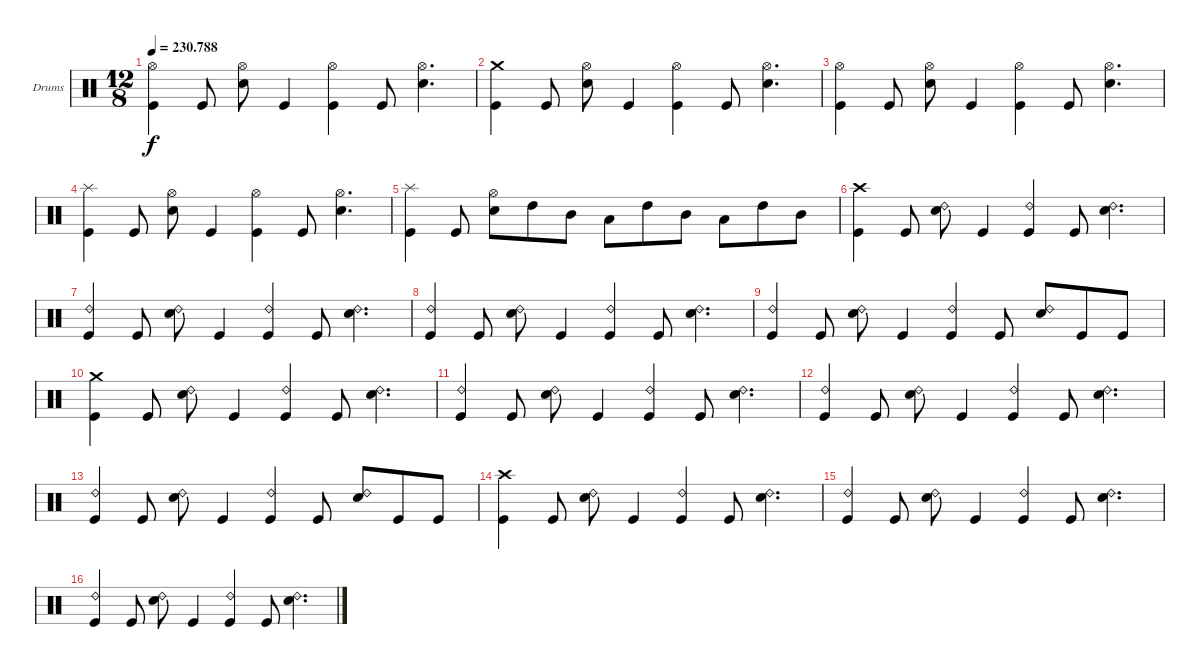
\bracketExtendMode groupsimilarinstruments
\firstSystemTrackNameOrientation horizontal
\otherSystemsTrackNameOrientation horizontal
\track ("Ударные" "Drums") {instrument percussion}
\staff {score}
\articulation defaults
\ts (12 8)
\tempo
230.788
\accidentals auto
\clef neutral
\ottava regular
\simile none
\ks c
("Hi-Hat (open)" "Kick (hit)").4{dy f} "Kick (hit)".8 ("Hi-Hat (open)" "Snare (hit) 2").8 "Kick (hit)".4 ("Hi-Hat (open)" "Kick (hit)").4 "Kick (hit)".8 ("Hi-Hat (open)" "Snare (hit) 2").4{d} |
("Kick (hit)" "Crash medium (hit)").4 "Kick (hit)".8 ("Snare (hit) 2" "Hi-Hat (open)").8 "Kick (hit)".4 ("Kick (hit)" "Hi-Hat (open)").4 "Kick (hit)".8 ("Snare (hit) 2" "Hi-Hat (open)").4{d} |
("Hi-Hat (open)" "Kick (hit)").4 "Kick (hit)".8 ("Hi-Hat (open)" "Snare (hit) 2").8 "Kick (hit)".4 ("Hi-Hat (open)" "Kick (hit)").4 "Kick (hit)".8 ("Hi-Hat (open)" "Snare (hit) 2").4{d} |
("Splash (hit)" "Kick (hit)").4 "Kick (hit)".8 ("Hi-Hat (open)" "Snare (hit) 2").8 "Kick (hit)".4 ("Hi-Hat (open)" "Kick (hit)").4 "Kick (hit)".8 ("Hi-Hat (open)" "Snare (hit) 2").4{d} |
("Splash (hit)" "Kick (hit)").4 "Kick (hit)".8 ("Hi-Hat (open)" "Snare (hit) 2").8 "High Tom (hit)".8 "Mid Tom (hit)".8 "Low Tom (hit)".8 "High Tom (hit)".8 "Mid Tom (hit)".8 "Low Tom (hit)".8 "High Tom (hit)".8 "Mid Tom (hit)".8 |
("Crash high (hit)" "Kick (hit)").4 "Kick (hit)".8 ("Ride (bell) 2" "Snare (hit) 2").8 "Kick (hit)".4 ("Ride (bell) 2" "Kick (hit)").4 "Kick (hit)".8 ("Ride (bell) 2" "Snare (hit) 2").4{d} |
("Ride (bell) 2" "Kick (hit)").4 "Kick (hit)".8 ("Ride (bell) 2" "Snare (hit) 2").8 "Kick (hit)".4 ("Ride (bell) 2" "Kick (hit)").4 "Kick (hit)".8 ("Ride (bell) 2" "Snare (hit) 2").4{d} |
("Kick (hit)" "Ride (bell) 2").4 "Kick (hit)".8 ("Ride (bell) 2" "Snare (hit) 2").8 "Kick (hit)".4 ("Kick (hit)" "Ride (bell) 2").4 "Kick (hit)".8 ("Ride (bell) 2" "Snare (hit) 2").4{d} |
("Kick (hit)" "Ride (bell) 2").4 "Kick (hit)".8 ("Ride (bell) 2" "Snare (hit) 2").8 "Kick (hit)".4 ("Ride (bell) 2" "Kick (hit)").4 "Kick (hit)".8 ("Ride (bell) 2" "Snare (hit) 2").8 "Kick (hit)".8 "Kick (hit)".8 |
("Crash medium (hit)" "Kick (hit)").4 "Kick (hit)".8 ("Ride (bell) 2" "Snare (hit) 2").8 "Kick (hit)".4 ("Ride (bell) 2" "Kick (hit)").4 "Kick (hit)".8 ("Ride (bell) 2" "Snare (hit) 2").4{d} |
("Ride (bell) 2" "Kick (hit)").4 "Kick (hit)".8 ("Ride (bell) 2" "Snare (hit) 2").8 "Kick (hit)".4 ("Ride (bell) 2" "Kick (hit)").4 "Kick (hit)".8 ("Ride (bell) 2" "Snare (hit) 2").4{d} |
("Kick (hit)" "Ride (bell) 2").4 "Kick (hit)".8 ("Ride (bell) 2" "Snare (hit) 2").8 "Kick (hit)".4 ("Kick (hit)" "Ride (bell) 2").4 "Kick (hit)".8 ("Ride (bell) 2" "Snare (hit) 2").4{d} |
("Kick (hit)" "Ride (bell) 2").4 "Kick (hit)".8 ("Ride (bell) 2" "Snare (hit) 2").8 "Kick (hit)".4 ("Ride (bell) 2" "Kick (hit)").4 "Kick (hit)".8 ("Ride (bell) 2" "Snare (hit) 2").8 "Kick (hit)".8 "Kick (hit)".8 |
("Crash high (hit)" "Kick (hit)").4 "Kick (hit)".8 ("Ride (bell) 2" "Snare (hit) 2").8 "Kick (hit)".4 ("Ride (bell) 2" "Kick (hit)").4 "Kick (hit)".8 ("Ride (bell) 2" "Snare (hit) 2").4{d} |
("Ride (bell) 2" "Kick (hit)").4 "Kick (hit)".8 ("Ride (bell) 2" "Snare (hit) 2").8 "Kick (hit)".4 ("Ride (bell) 2" "Kick (hit)").4 "Kick (hit)".8 ("Ride (bell) 2" "Snare (hit) 2").4{d} |
("Kick (hit)" "Ride (bell) 2").4 "Kick (hit)".8 ("Ride (bell) 2" "Snare (hit) 2").8 "Kick (hit)".4 ("Kick (hit)" "Ride (bell) 2").4 "Kick (hit)".8 ("Ride (bell) 2" "Snare (hit) 2").4{d}
